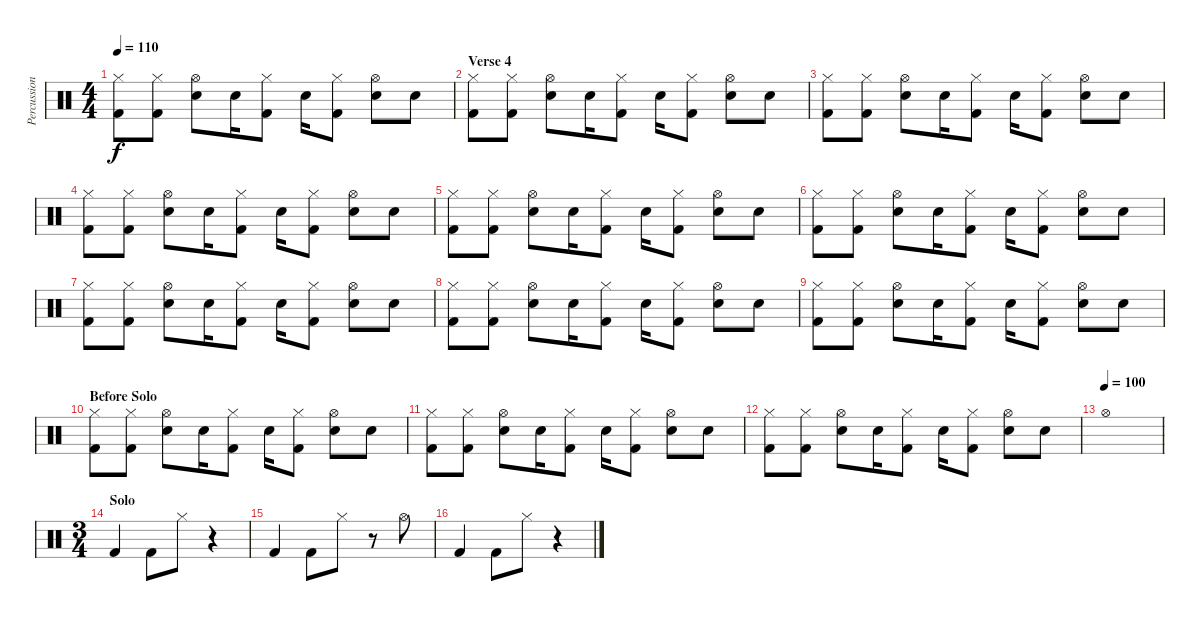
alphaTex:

\track ("Percussion" "Percussion") {instrument percussion}
\staff {score}
\articulation defaults
\ts (4 4)
\tempo 110
\clef neutral
\ks c
("Hi-Hat (closed)" "Kick (hit) 2").8{dy f} ("Hi-Hat (closed)" "Kick (hit) 2").8 ("Hi-Hat (open)" "Electric Snare (hit)").8 "Electric Snare (hit)".16 ("Hi-Hat (closed)" "Kick (hit) 2").8 "Electric Snare (hit)".16 ("Hi-Hat (closed)" "Kick (hit) 2").8 ("Hi-Hat (open)" "Electric Snare (hit)").8 "Electric Snare (hit)".8 |
\section ("" "Verse 4")
("Hi-Hat (closed)" "Kick (hit) 2").8 ("Hi-Hat (closed)" "Kick (hit) 2").8 ("Hi-Hat (open)" "Electric Snare (hit)").8 "Electric Snare (hit)".16 ("Hi-Hat (closed)" "Kick (hit) 2").8 "Electric Snare (hit)".16 ("Hi-Hat (closed)" "Kick (hit) 2").8 ("Hi-Hat (open)" "Electric Snare (hit)").8 "Electric Snare (hit)".8 |
("Hi-Hat (closed)" "Kick (hit) 2").8 ("Hi-Hat (closed)" "Kick (hit) 2").8 ("Hi-Hat (open)" "Electric Snare (hit)").8 "Electric Snare (hit)".16 ("Hi-Hat (closed)" "Kick (hit) 2").8 "Electric Snare (hit)".16 ("Hi-Hat (closed)" "Kick (hit) 2").8 ("Hi-Hat (open)" "Electric Snare (hit)").8 "Electric Snare (hit)".8 |
("Hi-Hat (closed)" "Kick (hit) 2").8 ("Hi-Hat (closed)" "Kick (hit) 2").8 ("Hi-Hat (open)" "Electric Snare (hit)").8 "Electric Snare (hit)".16 ("Hi-Hat (closed)" "Kick (hit) 2").8 "Electric Snare (hit)".16 ("Hi-Hat (closed)" "Kick (hit) 2").8 ("Hi-Hat (open)" "Electric Snare (hit)").8 "Electric Snare (hit)".8 |
("Hi-Hat (closed)" "Kick (hit) 2").8 ("Hi-Hat (closed)" "Kick (hit) 2").8 ("Hi-Hat (open)" "Electric Snare (hit)").8 "Electric Snare (hit)".16 ("Hi-Hat (closed)" "Kick (hit) 2").8 "Electric Snare (hit)".16 ("Hi-Hat (closed)" "Kick (hit) 2").8 ("Hi-Hat (open)" "Electric Snare (hit)").8 "Electric Snare (hit)".8 |
("Hi-Hat (closed)" "Kick (hit) 2").8 ("Hi-Hat (closed)" "Kick (hit) 2").8 ("Hi-Hat (open)" "Electric Snare (hit)").8 "Electric Snare (hit)".16 ("Hi-Hat (closed)" "Kick (hit) 2").8 "Electric Snare (hit)".16 ("Hi-Hat (closed)" "Kick (hit) 2").8 ("Hi-Hat (open)" "Electric Snare (hit)").8 "Electric Snare (hit)".8 |
("Hi-Hat (closed)" "Kick (hit) 2").8 ("Hi-Hat (closed)" "Kick (hit) 2").8 ("Hi-Hat (open)" "Electric Snare (hit)").8 "Electric Snare (hit)".16 ("Hi-Hat (closed)" "Kick (hit) 2").8 "Electric Snare (hit)".16 ("Hi-Hat (closed)" "Kick (hit) 2").8 ("Hi-Hat (open)" "Electric Snare (hit)").8 "Electric Snare (hit)".8 |
("Hi-Hat (closed)" "Kick (hit) 2").8 ("Hi-Hat (closed)" "Kick (hit) 2").8 ("Hi-Hat (open)" "Electric Snare (hit)").8 "Electric Snare (hit)".16 ("Hi-Hat (closed)" "Kick (hit) 2").8 "Electric Snare (hit)".16 ("Hi-Hat (closed)" "Kick (hit) 2").8 ("Hi-Hat (open)" "Electric Snare (hit)").8 "Electric Snare (hit)".8 |
("Hi-Hat (closed)" "Kick (hit) 2").8 ("Hi-Hat (closed)" "Kick (hit) 2").8 ("Hi-Hat (open)" "Electric Snare (hit)").8 "Electric Snare (hit)".16 ("Hi-Hat (closed)" "Kick (hit) 2").8 "Electric Snare (hit)".16 ("Hi-Hat (closed)" "Kick (hit) 2").8 ("Hi-Hat (open)" "Electric Snare (hit)").8 "Electric Snare (hit)".8 |
\section ("" "Before Solo")
("Hi-Hat (closed)" "Kick (hit) 2").8 ("Hi-Hat (closed)" "Kick (hit) 2").8 ("Hi-Hat (open)" "Electric Snare (hit)").8 "Electric Snare (hit)".16 ("Hi-Hat (closed)" "Kick (hit) 2").8 "Electric Snare (hit)".16 ("Hi-Hat (closed)" "Kick (hit) 2").8 ("Hi-Hat (open)" "Electric Snare (hit)").8 "Electric Snare (hit)".8 |
("Hi-Hat (closed)" "Kick (hit) 2").8 ("Hi-Hat (closed)" "Kick (hit) 2").8 ("Hi-Hat (open)" "Electric Snare (hit)").8 "Electric Snare (hit)".16 ("Hi-Hat (closed)" "Kick (hit) 2").8 "Electric Snare (hit)".16 ("Hi-Hat (closed)" "Kick (hit) 2").8 ("Hi-Hat (open)" "Electric Snare (hit)").8 "Electric Snare (hit)".8 |
("Hi-Hat (closed)" "Kick (hit) 2").8 ("Hi-Hat (closed)" "Kick (hit) 2").8 ("Hi-Hat (open)" "Electric Snare (hit)").8 "Electric Snare (hit)".16 ("Hi-Hat (closed)" "Kick (hit) 2").8 "Electric Snare (hit)".16 ("Hi-Hat (closed)" "Kick (hit) 2").8 ("Hi-Hat (open)" "Electric Snare (hit)").8 "Electric Snare (hit)".8 |
\tempo (100)
"Hi-Hat (open)".1 |
\ts (3 4)
\section ("" "Solo")
"Kick (hit) 2".4 "Kick (hit) 2".8 "Hi-Hat (closed)".8 r.4 |
"Kick (hit) 2".4 "Kick (hit) 2".8 "Hi-Hat (closed)".8 r.8 "Hi-Hat (open)".8 |
"Kick (hit) 2".4 "Kick (hit) 2".8 "Hi-Hat (closed)".8 r.4
